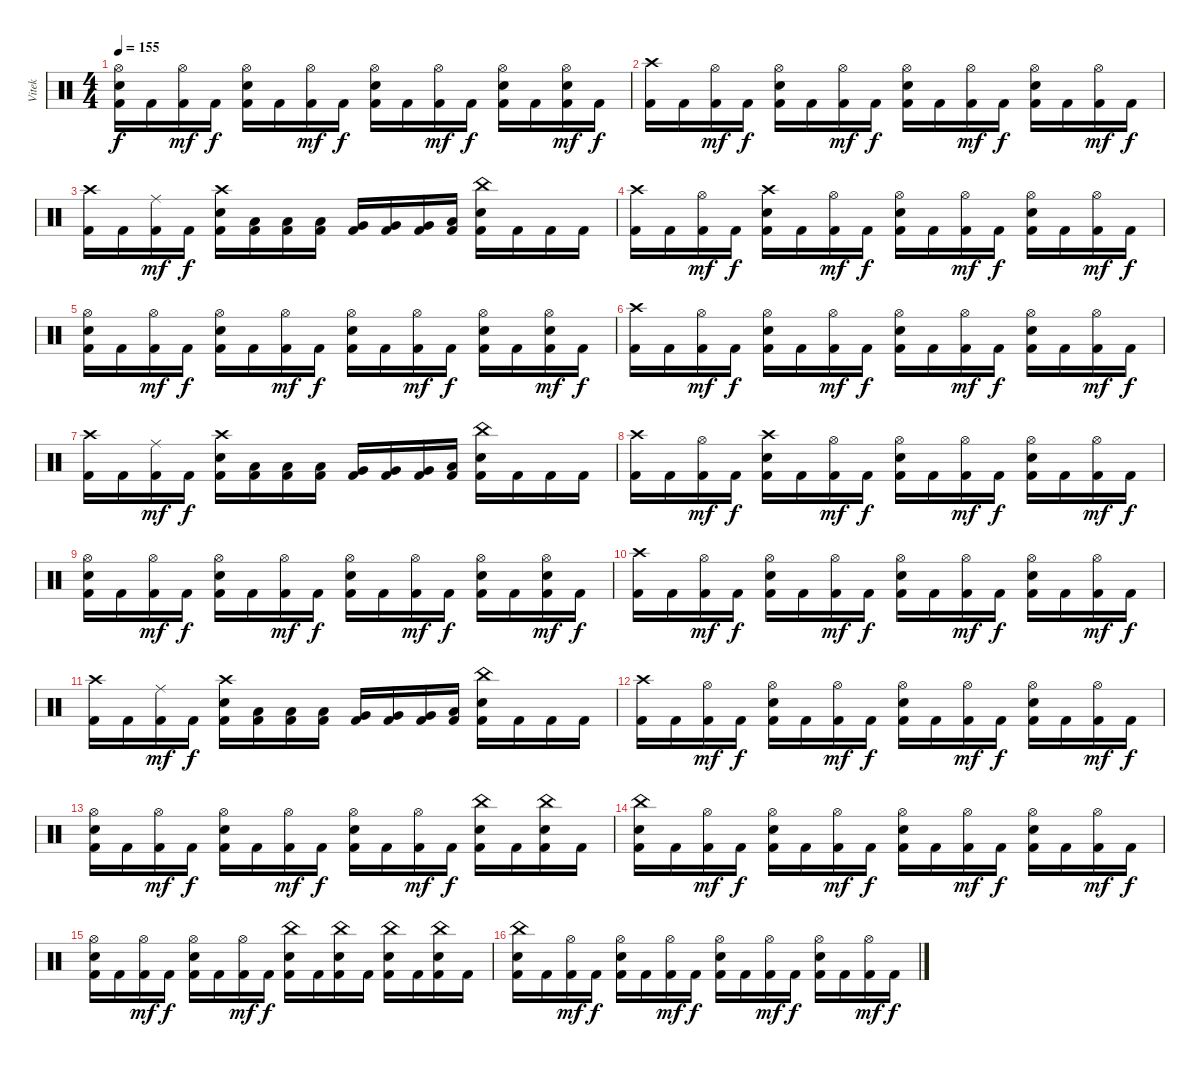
\track ("Vitek" "Vitek") {instrument percussion}
\staff {score}
\articulation defaults
\ts (4 4)
\tempo 155
\clef neutral
\ks c
("Hi-Hat (open)" "Electric Snare (hit)" "Kick (hit) 2").16{dy f} "Kick (hit) 2".16 ("Hi-Hat (open)" "Kick (hit) 2").16{dy mf} "Kick (hit) 2".16{dy f} ("Hi-Hat (open)" "Electric Snare (hit)" "Kick (hit) 2").16 "Kick (hit) 2".16 ("Hi-Hat (open)" "Kick (hit) 2").16{dy mf} "Kick (hit) 2".16{dy f} ("Hi-Hat (open)" "Electric Snare (hit)" "Kick (hit) 2").16 "Kick (hit) 2".16 ("Hi-Hat (open)" "Kick (hit) 2").16{dy mf} "Kick (hit) 2".16{dy f} ("Hi-Hat (open)" "Electric Snare (hit)" "Kick (hit) 2").16 "Kick (hit) 2".16 ("Hi-Hat (open)" "Electric Snare (hit)" "Kick (hit) 2").16{dy mf} "Kick (hit) 2".16{dy f} |
("Crash high (hit)" "Kick (hit) 2").16 "Kick (hit) 2".16 ("Hi-Hat (open)" "Kick (hit) 2").16{dy mf} "Kick (hit) 2".16{dy f} ("Hi-Hat (open)" "Electric Snare (hit)" "Kick (hit) 2").16 "Kick (hit) 2".16 ("Hi-Hat (open)" "Kick (hit) 2").16{dy mf} "Kick (hit) 2".16{dy f} ("Hi-Hat (open)" "Electric Snare (hit)" "Kick (hit) 2").16 "Kick (hit) 2".16 ("Hi-Hat (open)" "Kick (hit) 2").16{dy mf} "Kick (hit) 2".16{dy f} ("Hi-Hat (open)" "Electric Snare (hit)" "Kick (hit) 2").16 "Kick (hit) 2".16 ("Hi-Hat (open)" "Kick (hit) 2").16{dy mf} "Kick (hit) 2".16{dy f} |
("Crash high (hit)" "Kick (hit) 2").16 "Kick (hit) 2".16 ("Ride (middle)" "Kick (hit) 2").16{dy mf} "Kick (hit) 2".16{dy f} ("Crash high (hit)" "Electric Snare (hit)" "Kick (hit) 2").16 ("Low Tom (hit)" "Kick (hit) 2").16 ("Low Tom (hit)" "Kick (hit) 2").16 ("Low Tom (hit)" "Kick (hit) 2").16 ("Very Low Tom (hit)" "Kick (hit) 2").16 ("Very Low Tom (hit)" "Kick (hit) 2").16 ("Very Low Tom (hit)" "Kick (hit) 2").16 ("Low Floor Tom (hit)" "Kick (hit) 2").16 ("China (hit)" "Electric Snare (hit)" "Kick (hit) 2").16 "Kick (hit) 2".16 "Kick (hit) 2".16 "Kick (hit) 2".16 |
("Crash high (hit)" "Kick (hit) 2").16 "Kick (hit) 2".16 ("Hi-Hat (open)" "Kick (hit) 2").16{dy mf} "Kick (hit) 2".16{dy f} ("Crash high (hit)" "Electric Snare (hit)" "Kick (hit) 2").16 "Kick (hit) 2".16 ("Hi-Hat (open)" "Kick (hit) 2").16{dy mf} "Kick (hit) 2".16{dy f} ("Hi-Hat (open)" "Electric Snare (hit)" "Kick (hit) 2").16 "Kick (hit) 2".16 ("Hi-Hat (open)" "Kick (hit) 2").16{dy mf} "Kick (hit) 2".16{dy f} ("Hi-Hat (open)" "Electric Snare (hit)" "Kick (hit) 2").16 "Kick (hit) 2".16 ("Hi-Hat (open)" "Kick (hit) 2").16{dy mf} "Kick (hit) 2".16{dy f} |
("Hi-Hat (open)" "Electric Snare (hit)" "Kick (hit) 2").16 "Kick (hit) 2".16 ("Hi-Hat (open)" "Kick (hit) 2").16{dy mf} "Kick (hit) 2".16{dy f} ("Hi-Hat (open)" "Electric Snare (hit)" "Kick (hit) 2").16 "Kick (hit) 2".16 ("Hi-Hat (open)" "Kick (hit) 2").16{dy mf} "Kick (hit) 2".16{dy f} ("Hi-Hat (open)" "Electric Snare (hit)" "Kick (hit) 2").16 "Kick (hit) 2".16 ("Hi-Hat (open)" "Kick (hit) 2").16{dy mf} "Kick (hit) 2".16{dy f} ("Hi-Hat (open)" "Electric Snare (hit)" "Kick (hit) 2").16 "Kick (hit) 2".16 ("Hi-Hat (open)" "Electric Snare (hit)" "Kick (hit) 2").16{dy mf} "Kick (hit) 2".16{dy f} |
("Crash high (hit)" "Kick (hit) 2").16 "Kick (hit) 2".16 ("Hi-Hat (open)" "Kick (hit) 2").16{dy mf} "Kick (hit) 2".16{dy f} ("Hi-Hat (open)" "Electric Snare (hit)" "Kick (hit) 2").16 "Kick (hit) 2".16 ("Hi-Hat (open)" "Kick (hit) 2").16{dy mf} "Kick (hit) 2".16{dy f} ("Hi-Hat (open)" "Electric Snare (hit)" "Kick (hit) 2").16 "Kick (hit) 2".16 ("Hi-Hat (open)" "Kick (hit) 2").16{dy mf} "Kick (hit) 2".16{dy f} ("Hi-Hat (open)" "Electric Snare (hit)" "Kick (hit) 2").16 "Kick (hit) 2".16 ("Hi-Hat (open)" "Kick (hit) 2").16{dy mf} "Kick (hit) 2".16{dy f} |
("Crash high (hit)" "Kick (hit) 2").16 "Kick (hit) 2".16 ("Ride (middle)" "Kick (hit) 2").16{dy mf} "Kick (hit) 2".16{dy f} ("Crash high (hit)" "Electric Snare (hit)" "Kick (hit) 2").16 ("Low Tom (hit)" "Kick (hit) 2").16 ("Low Tom (hit)" "Kick (hit) 2").16 ("Low Tom (hit)" "Kick (hit) 2").16 ("Very Low Tom (hit)" "Kick (hit) 2").16 ("Very Low Tom (hit)" "Kick (hit) 2").16 ("Very Low Tom (hit)" "Kick (hit) 2").16 ("Low Floor Tom (hit)" "Kick (hit) 2").16 ("China (hit)" "Electric Snare (hit)" "Kick (hit) 2").16 "Kick (hit) 2".16 "Kick (hit) 2".16 "Kick (hit) 2".16 |
("Crash high (hit)" "Kick (hit) 2").16 "Kick (hit) 2".16 ("Hi-Hat (open)" "Kick (hit) 2").16{dy mf} "Kick (hit) 2".16{dy f} ("Crash high (hit)" "Electric Snare (hit)" "Kick (hit) 2").16 "Kick (hit) 2".16 ("Hi-Hat (open)" "Kick (hit) 2").16{dy mf} "Kick (hit) 2".16{dy f} ("Hi-Hat (open)" "Electric Snare (hit)" "Kick (hit) 2").16 "Kick (hit) 2".16 ("Hi-Hat (open)" "Kick (hit) 2").16{dy mf} "Kick (hit) 2".16{dy f} ("Hi-Hat (open)" "Electric Snare (hit)" "Kick (hit) 2").16 "Kick (hit) 2".16 ("Hi-Hat (open)" "Kick (hit) 2").16{dy mf} "Kick (hit) 2".16{dy f} |
("Hi-Hat (open)" "Electric Snare (hit)" "Kick (hit) 2").16 "Kick (hit) 2".16 ("Hi-Hat (open)" "Kick (hit) 2").16{dy mf} "Kick (hit) 2".16{dy f} ("Hi-Hat (open)" "Electric Snare (hit)" "Kick (hit) 2").16 "Kick (hit) 2".16 ("Hi-Hat (open)" "Kick (hit) 2").16{dy mf} "Kick (hit) 2".16{dy f} ("Hi-Hat (open)" "Electric Snare (hit)" "Kick (hit) 2").16 "Kick (hit) 2".16 ("Hi-Hat (open)" "Kick (hit) 2").16{dy mf} "Kick (hit) 2".16{dy f} ("Hi-Hat (open)" "Electric Snare (hit)" "Kick (hit) 2").16 "Kick (hit) 2".16 ("Hi-Hat (open)" "Electric Snare (hit)" "Kick (hit) 2").16{dy mf} "Kick (hit) 2".16{dy f} |
("Crash high (hit)" "Kick (hit) 2").16 "Kick (hit) 2".16 ("Hi-Hat (open)" "Kick (hit) 2").16{dy mf} "Kick (hit) 2".16{dy f} ("Hi-Hat (open)" "Electric Snare (hit)" "Kick (hit) 2").16 "Kick (hit) 2".16 ("Hi-Hat (open)" "Kick (hit) 2").16{dy mf} "Kick (hit) 2".16{dy f} ("Hi-Hat (open)" "Electric Snare (hit)" "Kick (hit) 2").16 "Kick (hit) 2".16 ("Hi-Hat (open)" "Kick (hit) 2").16{dy mf} "Kick (hit) 2".16{dy f} ("Hi-Hat (open)" "Electric Snare (hit)" "Kick (hit) 2").16 "Kick (hit) 2".16 ("Hi-Hat (open)" "Kick (hit) 2").16{dy mf} "Kick (hit) 2".16{dy f} |
("Crash high (hit)" "Kick (hit) 2").16 "Kick (hit) 2".16 ("Ride (middle)" "Kick (hit) 2").16{dy mf} "Kick (hit) 2".16{dy f} ("Crash high (hit)" "Electric Snare (hit)" "Kick (hit) 2").16 ("Low Tom (hit)" "Kick (hit) 2").16 ("Low Tom (hit)" "Kick (hit) 2").16 ("Low Tom (hit)" "Kick (hit) 2").16 ("Very Low Tom (hit)" "Kick (hit) 2").16 ("Very Low Tom (hit)" "Kick (hit) 2").16 ("Very Low Tom (hit)" "Kick (hit) 2").16 ("Low Floor Tom (hit)" "Kick (hit) 2").16 ("China (hit)" "Electric Snare (hit)" "Kick (hit) 2").16 "Kick (hit) 2".16 "Kick (hit) 2".16 "Kick (hit) 2".16 |
("Crash high (hit)" "Kick (hit) 2").16 "Kick (hit) 2".16 ("Hi-Hat (open)" "Kick (hit) 2").16{dy mf} "Kick (hit) 2".16{dy f} ("Hi-Hat (open)" "Electric Snare (hit)" "Kick (hit) 2").16 "Kick (hit) 2".16 ("Hi-Hat (open)" "Kick (hit) 2").16{dy mf} "Kick (hit) 2".16{dy f} ("Hi-Hat (open)" "Electric Snare (hit)" "Kick (hit) 2").16 "Kick (hit) 2".16 ("Hi-Hat (open)" "Kick (hit) 2").16{dy mf} "Kick (hit) 2".16{dy f} ("Hi-Hat (open)" "Electric Snare (hit)" "Kick (hit) 2").16 "Kick (hit) 2".16 ("Hi-Hat (open)" "Kick (hit) 2").16{dy mf} "Kick (hit) 2".16{dy f} |
("Hi-Hat (open)" "Electric Snare (hit)" "Kick (hit) 2").16 "Kick (hit) 2".16 ("Hi-Hat (open)" "Kick (hit) 2").16{dy mf} "Kick (hit) 2".16{dy f} ("Hi-Hat (open)" "Electric Snare (hit)" "Kick (hit) 2").16 "Kick (hit) 2".16 ("Hi-Hat (open)" "Kick (hit) 2").16{dy mf} "Kick (hit) 2".16{dy f} ("Hi-Hat (open)" "Electric Snare (hit)" "Kick (hit) 2").16 "Kick (hit) 2".16 ("Hi-Hat (open)" "Kick (hit) 2").16{dy mf} "Kick (hit) 2".16{dy f} ("China (hit)" "Electric Snare (hit)" "Kick (hit) 2").16 "Kick (hit) 2".16 ("China (hit)" "Electric Snare (hit)" "Kick (hit) 2").16 "Kick (hit) 2".16 |
("China (hit)" "Electric Snare (hit)" "Kick (hit) 2").16 "Kick (hit) 2".16 ("Hi-Hat (open)" "Kick (hit) 2").16{dy mf} "Kick (hit) 2".16{dy f} ("Hi-Hat (open)" "Electric Snare (hit)" "Kick (hit) 2").16 "Kick (hit) 2".16 ("Hi-Hat (open)" "Kick (hit) 2").16{dy mf} "Kick (hit) 2".16{dy f} ("Hi-Hat (open)" "Electric Snare (hit)" "Kick (hit) 2").16 "Kick (hit) 2".16 ("Hi-Hat (open)" "Kick (hit) 2").16{dy mf} "Kick (hit) 2".16{dy f} ("Hi-Hat (open)" "Electric Snare (hit)" "Kick (hit) 2").16 "Kick (hit) 2".16 ("Hi-Hat (open)" "Kick (hit) 2").16{dy mf} "Kick (hit) 2".16{dy f} |
("Hi-Hat (open)" "Electric Snare (hit)" "Kick (hit) 2").16 "Kick (hit) 2".16 ("Hi-Hat (open)" "Kick (hit) 2").16{dy mf} "Kick (hit) 2".16{dy f} ("Hi-Hat (open)" "Electric Snare (hit)" "Kick (hit) 2").16 "Kick (hit) 2".16 ("Hi-Hat (open)" "Kick (hit) 2").16{dy mf} "Kick (hit) 2".16{dy f} ("China (hit)" "Electric Snare (hit)" "Kick (hit) 2").16 "Kick (hit) 2".16 ("China (hit)" "Electric Snare (hit)" "Kick (hit) 2").16 "Kick (hit) 2".16 ("China (hit)" "Electric Snare (hit)" "Kick (hit) 2").16 "Kick (hit) 2".16 ("China (hit)" "Electric Snare (hit)" "Kick (hit) 2").16 "Kick (hit) 2".16 |
("China (hit)" "Electric Snare (hit)" "Kick (hit) 2").16 "Kick (hit) 2".16 ("Hi-Hat (open)" "Kick (hit) 2").16{dy mf} "Kick (hit) 2".16{dy f} ("Hi-Hat (open)" "Electric Snare (hit)" "Kick (hit) 2").16 "Kick (hit) 2".16 ("Hi-Hat (open)" "Kick (hit) 2").16{dy mf} "Kick (hit) 2".16{dy f} ("Hi-Hat (open)" "Electric Snare (hit)" "Kick (hit) 2").16 "Kick (hit) 2".16 ("Hi-Hat (open)" "Kick (hit) 2").16{dy mf} "Kick (hit) 2".16{dy f} ("Hi-Hat (open)" "Electric Snare (hit)" "Kick (hit) 2").16 "Kick (hit) 2".16 ("Hi-Hat (open)" "Kick (hit) 2").16{dy mf} "Kick (hit) 2".16{dy f}
